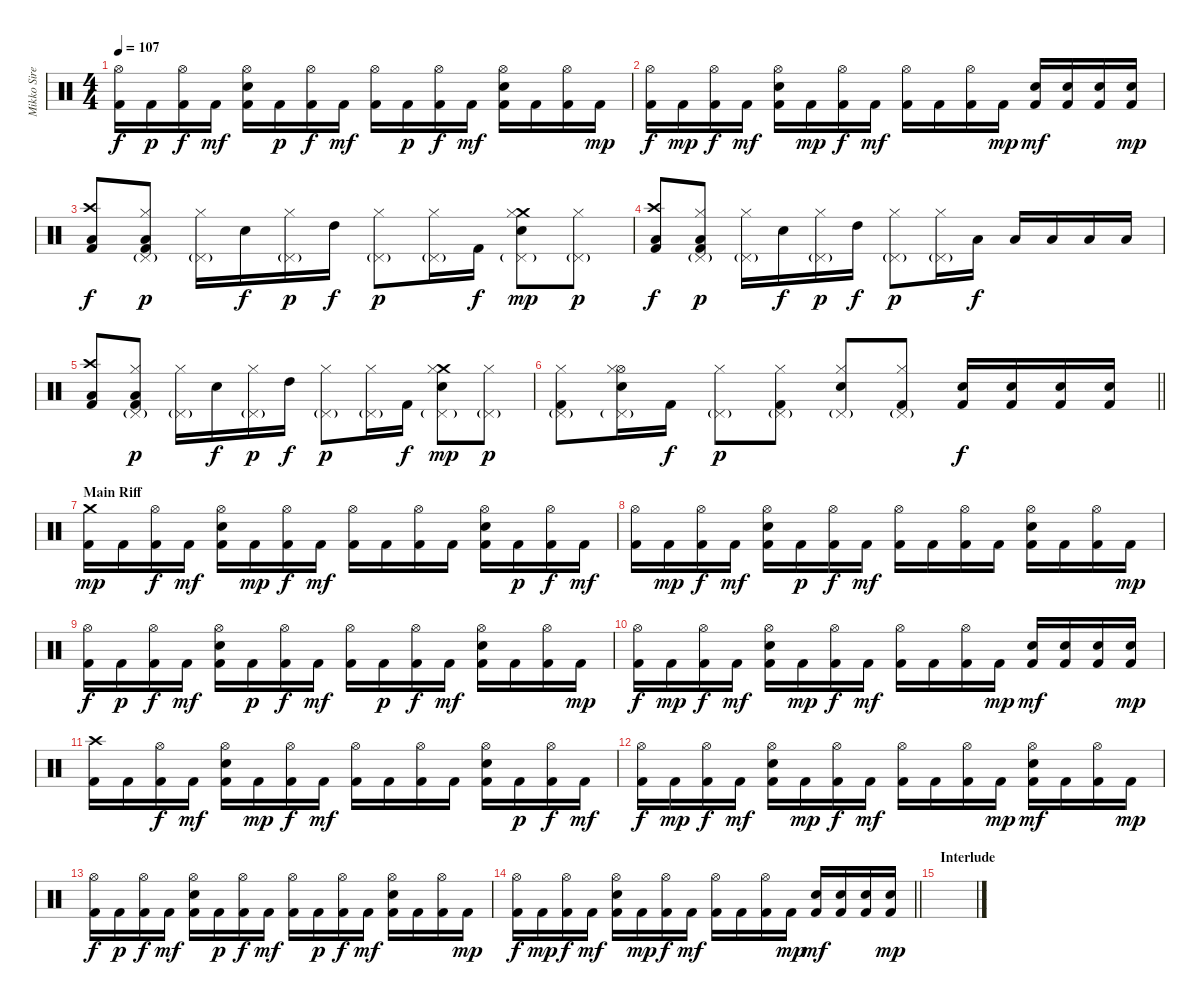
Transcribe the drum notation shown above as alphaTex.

\track ("Mikko Siren" "Mikko Sire") {instrument percussion}
\staff {score}
\articulation defaults
\ts (4 4)
\tempo 107
\clef neutral
\ks c
("Kick (hit) 2" "Hi-Hat (open)").16{dy f} "Kick (hit) 2".16{dy p} ("Kick (hit) 2" "Hi-Hat (open)").16{dy f} "Kick (hit) 2".16{dy mf} ("Kick (hit) 2" "Electric Snare (hit)" "Hi-Hat (open)").16 "Kick (hit) 2".16{dy p} ("Kick (hit) 2" "Hi-Hat (open)").16{dy f} "Kick (hit) 2".16{dy mf} ("Kick (hit) 2" "Hi-Hat (open)").16 "Kick (hit) 2".16{dy p} ("Kick (hit) 2" "Hi-Hat (open)").16{dy f} "Kick (hit) 2".16{dy mf} ("Kick (hit) 2" "Electric Snare (hit)" "Hi-Hat (open)").16 "Kick (hit) 2".16 ("Kick (hit) 2" "Hi-Hat (open)").16 "Kick (hit) 2".16{dy mp} |
("Kick (hit) 2" "Hi-Hat (open)").16{dy f} "Kick (hit) 2".16{dy mp} ("Kick (hit) 2" "Hi-Hat (open)").16{dy f} "Kick (hit) 2".16{dy mf} ("Kick (hit) 2" "Electric Snare (hit)" "Hi-Hat (open)").16 "Kick (hit) 2".16{dy mp} ("Kick (hit) 2" "Hi-Hat (open)").16{dy f} "Kick (hit) 2".16{dy mf} ("Kick (hit) 2" "Hi-Hat (open)").16 "Kick (hit) 2".16 ("Kick (hit) 2" "Hi-Hat (open)").16 "Kick (hit) 2".16{dy mp} ("Kick (hit) 2" "Electric Snare (hit)").16{dy mf} ("Kick (hit) 2" "Electric Snare (hit)").16 ("Kick (hit) 2" "Electric Snare (hit)").16 ("Kick (hit) 2" "Electric Snare (hit)").16{dy mp} |
("Crash high (hit)" "Kick (hit) 2" "Low Tom (hit)").8{dy f} ("Low Floor Tom (hit)" "Kick (hit) 2" "Hi-Hat (closed)" "Pedal Hi-Hat (hit)"{g}).8{dy p} ("Hi-Hat (closed)" "Pedal Hi-Hat (hit)"{g}).16 "Electric Snare (hit)".16{dy f} ("Hi-Hat (closed)" "Pedal Hi-Hat (hit)"{g}).16{dy p} "High Tom (hit)".16{dy f} ("Hi-Hat (closed)" "Pedal Hi-Hat (hit)"{g}).8{dy p} ("Hi-Hat (closed)" "Pedal Hi-Hat (hit)"{g}).16 "Kick (hit) 2".16{dy f} ("Crash medium (hit)" "Electric Snare (hit)" "Hi-Hat (closed)" "Pedal Hi-Hat (hit)"{g}).8{dy mp} ("Hi-Hat (closed)" "Pedal Hi-Hat (hit)"{g}).8{dy p} |
("Crash high (hit)" "Kick (hit) 2" "Low Tom (hit)").8{dy f} ("Low Floor Tom (hit)" "Kick (hit) 2" "Hi-Hat (closed)" "Pedal Hi-Hat (hit)"{g}).8{dy p} ("Hi-Hat (closed)" "Pedal Hi-Hat (hit)"{g}).16 "Electric Snare (hit)".16{dy f} ("Hi-Hat (closed)" "Pedal Hi-Hat (hit)"{g}).16{dy p} "High Tom (hit)".16{dy f} ("Hi-Hat (closed)" "Pedal Hi-Hat (hit)"{g}).8{dy p} ("Hi-Hat (closed)" "Pedal Hi-Hat (hit)"{g}).16 "Low Floor Tom (hit)".16{dy f} "Low Tom (hit)".16 "Low Floor Tom (hit)".16 "Low Tom (hit)".16 "Low Floor Tom (hit)".16 |
("Crash high (hit)" "Kick (hit) 2" "Low Tom (hit)").8 ("Low Floor Tom (hit)" "Kick (hit) 2" "Hi-Hat (closed)" "Pedal Hi-Hat (hit)"{g}).8{dy p} ("Hi-Hat (closed)" "Pedal Hi-Hat (hit)"{g}).16 "Electric Snare (hit)".16{dy f} ("Hi-Hat (closed)" "Pedal Hi-Hat (hit)"{g}).16{dy p} "High Tom (hit)".16{dy f} ("Hi-Hat (closed)" "Pedal Hi-Hat (hit)"{g}).8{dy p} ("Hi-Hat (closed)" "Pedal Hi-Hat (hit)"{g}).16 "Kick (hit) 2".16{dy f} ("Crash medium (hit)" "Electric Snare (hit)" "Hi-Hat (closed)" "Pedal Hi-Hat (hit)"{g}).8{dy mp} ("Hi-Hat (closed)" "Pedal Hi-Hat (hit)"{g}).8{dy p} |
\barLineRight lightlight
("Kick (hit) 2" "Hi-Hat (closed)" "Pedal Hi-Hat (hit)"{g}).8 ("Electric Snare (hit)" "Hi-Hat (open)" "Hi-Hat (closed)" "Pedal Hi-Hat (hit)"{g}).16 "Kick (hit) 2".16{dy f} ("Hi-Hat (closed)" "Pedal Hi-Hat (hit)"{g}).8{dy p} ("Kick (hit) 2" "Hi-Hat (closed)" "Pedal Hi-Hat (hit)"{g}).8 ("Electric Snare (hit)" "Hi-Hat (closed)" "Pedal Hi-Hat (hit)"{g}).8 ("Kick (hit) 2" "Hi-Hat (closed)" "Pedal Hi-Hat (hit)"{g}).8 ("Electric Snare (hit)" "Kick (hit) 2").16{dy f} ("Electric Snare (hit)" "Kick (hit) 2").16 ("Electric Snare (hit)" "Kick (hit) 2").16 ("Electric Snare (hit)" "Kick (hit) 2").16 |
\section ("" "Main Riff")
("Kick (hit) 2" "Crash medium (hit)").16{dy mp} "Kick (hit) 2".16 ("Kick (hit) 2" "Hi-Hat (open)").16{dy f} "Kick (hit) 2".16{dy mf} ("Kick (hit) 2" "Hi-Hat (open)" "Electric Snare (hit)").16 "Kick (hit) 2".16{dy mp} ("Kick (hit) 2" "Hi-Hat (open)").16{dy f} "Kick (hit) 2".16{dy mf} ("Kick (hit) 2" "Hi-Hat (open)").16 "Kick (hit) 2".16 ("Kick (hit) 2" "Hi-Hat (open)").16 "Kick (hit) 2".16 ("Kick (hit) 2" "Electric Snare (hit)" "Hi-Hat (open)").16 "Kick (hit) 2".16{dy p} ("Kick (hit) 2" "Hi-Hat (open)").16{dy f} "Kick (hit) 2".16{dy mf} |
("Kick (hit) 2" "Hi-Hat (open)").16 "Kick (hit) 2".16{dy mp} ("Kick (hit) 2" "Hi-Hat (open)").16{dy f} "Kick (hit) 2".16{dy mf} ("Kick (hit) 2" "Electric Snare (hit)" "Hi-Hat (open)").16 "Kick (hit) 2".16{dy p} ("Kick (hit) 2" "Hi-Hat (open)").16{dy f} "Kick (hit) 2".16{dy mf} ("Kick (hit) 2" "Hi-Hat (open)").16 "Kick (hit) 2".16 ("Kick (hit) 2" "Hi-Hat (open)").16 "Kick (hit) 2".16 ("Kick (hit) 2" "Electric Snare (hit)" "Hi-Hat (open)").16 "Kick (hit) 2".16 ("Kick (hit) 2" "Hi-Hat (open)").16 "Kick (hit) 2".16{dy mp} |
("Kick (hit) 2" "Hi-Hat (open)").16{dy f} "Kick (hit) 2".16{dy p} ("Kick (hit) 2" "Hi-Hat (open)").16{dy f} "Kick (hit) 2".16{dy mf} ("Kick (hit) 2" "Electric Snare (hit)" "Hi-Hat (open)").16 "Kick (hit) 2".16{dy p} ("Kick (hit) 2" "Hi-Hat (open)").16{dy f} "Kick (hit) 2".16{dy mf} ("Kick (hit) 2" "Hi-Hat (open)").16 "Kick (hit) 2".16{dy p} ("Kick (hit) 2" "Hi-Hat (open)").16{dy f} "Kick (hit) 2".16{dy mf} ("Kick (hit) 2" "Electric Snare (hit)" "Hi-Hat (open)").16 "Kick (hit) 2".16 ("Kick (hit) 2" "Hi-Hat (open)").16 "Kick (hit) 2".16{dy mp} |
("Kick (hit) 2" "Hi-Hat (open)").16{dy f} "Kick (hit) 2".16{dy mp} ("Kick (hit) 2" "Hi-Hat (open)").16{dy f} "Kick (hit) 2".16{dy mf} ("Kick (hit) 2" "Electric Snare (hit)" "Hi-Hat (open)").16 "Kick (hit) 2".16{dy mp} ("Kick (hit) 2" "Hi-Hat (open)").16{dy f} "Kick (hit) 2".16{dy mf} ("Kick (hit) 2" "Hi-Hat (open)").16 "Kick (hit) 2".16 ("Kick (hit) 2" "Hi-Hat (open)").16 "Kick (hit) 2".16{dy mp} ("Kick (hit) 2" "Electric Snare (hit)").16{dy mf} ("Kick (hit) 2" "Electric Snare (hit)").16 ("Kick (hit) 2" "Electric Snare (hit)").16 ("Kick (hit) 2" "Electric Snare (hit)").16{dy mp} |
("Kick (hit) 2" "Crash high (hit)").16 "Kick (hit) 2".16 ("Kick (hit) 2" "Hi-Hat (open)").16{dy f} "Kick (hit) 2".16{dy mf} ("Kick (hit) 2" "Electric Snare (hit)" "Hi-Hat (open)").16 "Kick (hit) 2".16{dy mp} ("Kick (hit) 2" "Hi-Hat (open)").16{dy f} "Kick (hit) 2".16{dy mf} ("Kick (hit) 2" "Hi-Hat (open)").16 "Kick (hit) 2".16 ("Kick (hit) 2" "Hi-Hat (open)").16 "Kick (hit) 2".16 ("Kick (hit) 2" "Electric Snare (hit)" "Hi-Hat (open)").16 "Kick (hit) 2".16{dy p} ("Kick (hit) 2" "Hi-Hat (open)").16{dy f} "Kick (hit) 2".16{dy mf} |
("Kick (hit) 2" "Hi-Hat (open)").16{dy f} "Kick (hit) 2".16{dy mp} ("Kick (hit) 2" "Hi-Hat (open)").16{dy f} "Kick (hit) 2".16{dy mf} ("Kick (hit) 2" "Electric Snare (hit)" "Hi-Hat (open)").16 "Kick (hit) 2".16{dy mp} ("Kick (hit) 2" "Hi-Hat (open)").16{dy f} "Kick (hit) 2".16{dy mf} ("Kick (hit) 2" "Hi-Hat (open)").16 "Kick (hit) 2".16 ("Kick (hit) 2" "Hi-Hat (open)").16 "Kick (hit) 2".16{dy mp} ("Kick (hit) 2" "Electric Snare (hit)" "Hi-Hat (open)").16{dy mf} "Kick (hit) 2".16 ("Kick (hit) 2" "Hi-Hat (open)").16 "Kick (hit) 2".16{dy mp} |
("Kick (hit) 2" "Hi-Hat (open)").16{dy f} "Kick (hit) 2".16{dy p} ("Kick (hit) 2" "Hi-Hat (open)").16{dy f} "Kick (hit) 2".16{dy mf} ("Kick (hit) 2" "Electric Snare (hit)" "Hi-Hat (open)").16 "Kick (hit) 2".16{dy p} ("Kick (hit) 2" "Hi-Hat (open)").16{dy f} "Kick (hit) 2".16{dy mf} ("Kick (hit) 2" "Hi-Hat (open)").16 "Kick (hit) 2".16{dy p} ("Kick (hit) 2" "Hi-Hat (open)").16{dy f} "Kick (hit) 2".16{dy mf} ("Kick (hit) 2" "Electric Snare (hit)" "Hi-Hat (open)").16 "Kick (hit) 2".16 ("Kick (hit) 2" "Hi-Hat (open)").16 "Kick (hit) 2".16{dy mp} |
\barLineRight lightlight
("Kick (hit) 2" "Hi-Hat (open)").16{dy f} "Kick (hit) 2".16{dy mp} ("Kick (hit) 2" "Hi-Hat (open)").16{dy f} "Kick (hit) 2".16{dy mf} ("Kick (hit) 2" "Electric Snare (hit)" "Hi-Hat (open)").16 "Kick (hit) 2".16{dy mp} ("Kick (hit) 2" "Hi-Hat (open)").16{dy f} "Kick (hit) 2".16{dy mf} ("Kick (hit) 2" "Hi-Hat (open)").16 "Kick (hit) 2".16 ("Kick (hit) 2" "Hi-Hat (open)").16 "Kick (hit) 2".16{dy mp} ("Kick (hit) 2" "Electric Snare (hit)").16{dy mf} ("Kick (hit) 2" "Electric Snare (hit)").16 ("Kick (hit) 2" "Electric Snare (hit)").16 ("Kick (hit) 2" "Electric Snare (hit)").16{dy mp} |
\section ("" "Interlude")
